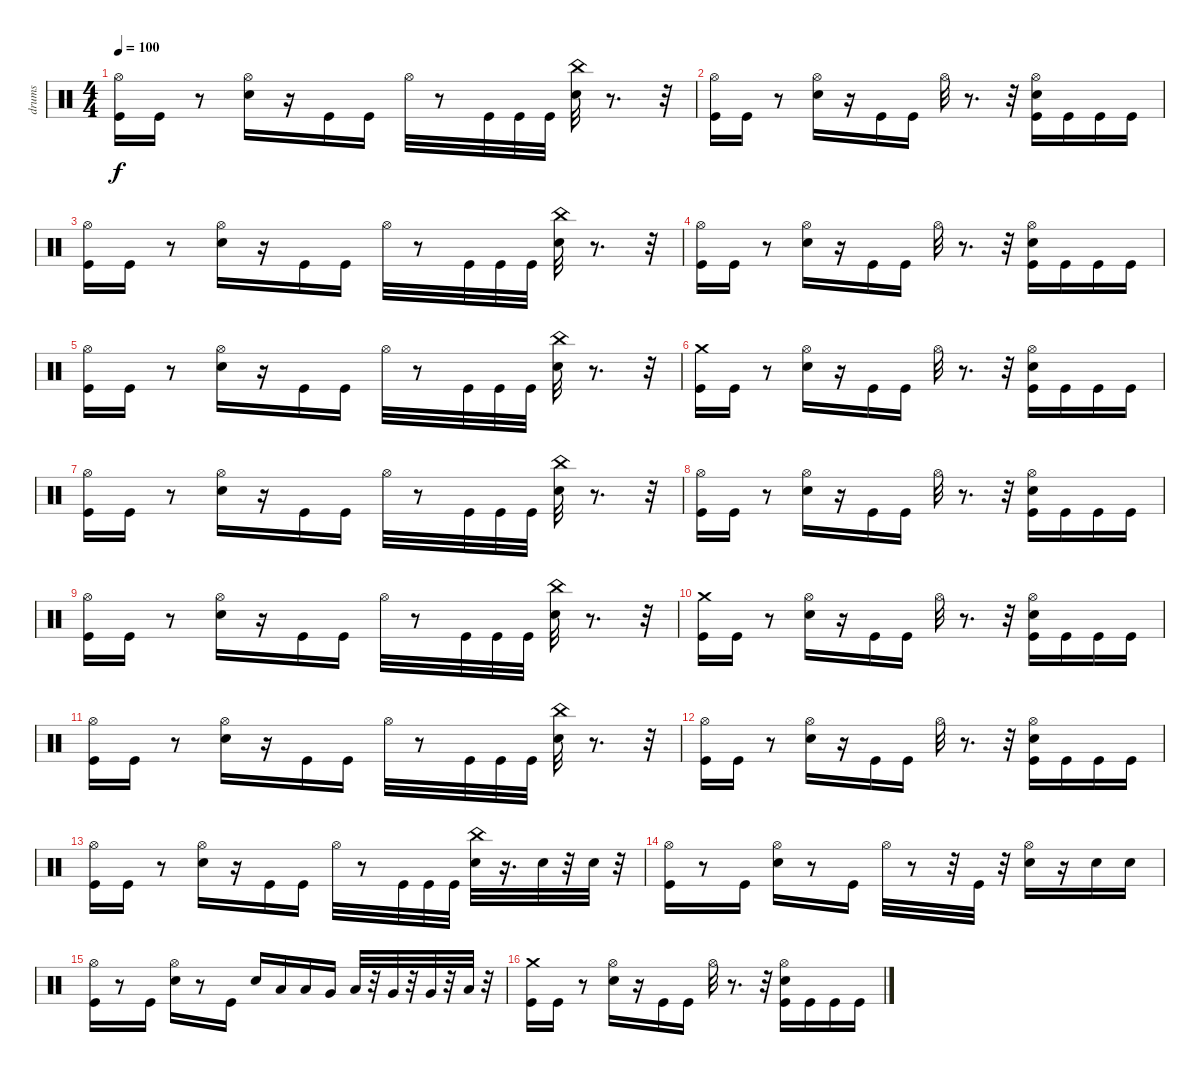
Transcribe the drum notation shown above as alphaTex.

\track ("drums" "drums") {instrument percussion}
\staff {score}
\articulation defaults
\ts (4 4)
\tempo 100
\clef neutral
\ks c
("Hi-Hat (open)" "Kick (hit)").16{dy f} "Kick (hit)".16 r.8 ("Electric Snare (hit)" "Hi-Hat (open)").16 r.16 "Kick (hit)".16 "Kick (hit)".16 "Hi-Hat (open)".32 r.8 "Kick (hit)".32 "Kick (hit)".32 "Kick (hit)".32 ("China (hit)" "Electric Snare (hit)").32 r.8{d} r.32 |
("Kick (hit)" "Hi-Hat (open)").16 "Kick (hit)".16 r.8 ("Hi-Hat (open)" "Electric Snare (hit)").16 r.16 "Kick (hit)".16 "Kick (hit)".16 "Hi-Hat (open)".32 r.8{d} r.32 ("Kick (hit)" "Hi-Hat (open)" "Electric Snare (hit)").16 "Kick (hit)".16 "Kick (hit)".16 "Kick (hit)".16 |
("Kick (hit)" "Hi-Hat (open)").16 "Kick (hit)".16 r.8 ("Hi-Hat (open)" "Electric Snare (hit)").16 r.16 "Kick (hit)".16 "Kick (hit)".16 "Hi-Hat (open)".32 r.8 "Kick (hit)".32 "Kick (hit)".32 "Kick (hit)".32 ("Electric Snare (hit)" "China (hit)").32 r.8{d} r.32 |
("Hi-Hat (open)" "Kick (hit)").16 "Kick (hit)".16 r.8 ("Electric Snare (hit)" "Hi-Hat (open)").16 r.16 "Kick (hit)".16 "Kick (hit)".16 "Hi-Hat (open)".32 r.8{d} r.32 ("Kick (hit)" "Hi-Hat (open)" "Electric Snare (hit)").16 "Kick (hit)".16 "Kick (hit)".16 "Kick (hit)".16 |
("Kick (hit)" "Hi-Hat (open)").16 "Kick (hit)".16 r.8 ("Electric Snare (hit)" "Hi-Hat (open)").16 r.16 "Kick (hit)".16 "Kick (hit)".16 "Hi-Hat (open)".32 r.8 "Kick (hit)".32 "Kick (hit)".32 "Kick (hit)".32 ("China (hit)" "Electric Snare (hit)").32 r.8{d} r.32 |
("Kick (hit)" "Crash medium (hit)").16 "Kick (hit)".16 r.8 ("Electric Snare (hit)" "Hi-Hat (open)").16 r.16 "Kick (hit)".16 "Kick (hit)".16 "Hi-Hat (open)".32 r.8{d} r.32 ("Kick (hit)" "Hi-Hat (open)" "Electric Snare (hit)").16 "Kick (hit)".16 "Kick (hit)".16 "Kick (hit)".16 |
("Kick (hit)" "Hi-Hat (open)").16 "Kick (hit)".16 r.8 ("Electric Snare (hit)" "Hi-Hat (open)").16 r.16 "Kick (hit)".16 "Kick (hit)".16 "Hi-Hat (open)".32 r.8 "Kick (hit)".32 "Kick (hit)".32 "Kick (hit)".32 ("Electric Snare (hit)" "China (hit)").32 r.8{d} r.32 |
("Kick (hit)" "Hi-Hat (open)").16 "Kick (hit)".16 r.8 ("Hi-Hat (open)" "Electric Snare (hit)").16 r.16 "Kick (hit)".16 "Kick (hit)".16 "Hi-Hat (open)".32 r.8{d} r.32 ("Kick (hit)" "Electric Snare (hit)" "Hi-Hat (open)").16 "Kick (hit)".16 "Kick (hit)".16 "Kick (hit)".16 |
("Hi-Hat (open)" "Kick (hit)").16 "Kick (hit)".16 r.8 ("Electric Snare (hit)" "Hi-Hat (open)").16 r.16 "Kick (hit)".16 "Kick (hit)".16 "Hi-Hat (open)".32 r.8 "Kick (hit)".32 "Kick (hit)".32 "Kick (hit)".32 ("China (hit)" "Electric Snare (hit)").32 r.8{d} r.32 |
("Crash medium (hit)" "Kick (hit)").16 "Kick (hit)".16 r.8 ("Electric Snare (hit)" "Hi-Hat (open)").16 r.16 "Kick (hit)".16 "Kick (hit)".16 "Hi-Hat (open)".32 r.8{d} r.32 ("Kick (hit)" "Hi-Hat (open)" "Electric Snare (hit)").16 "Kick (hit)".16 "Kick (hit)".16 "Kick (hit)".16 |
("Kick (hit)" "Hi-Hat (open)").16 "Kick (hit)".16 r.8 ("Electric Snare (hit)" "Hi-Hat (open)").16 r.16 "Kick (hit)".16 "Kick (hit)".16 "Hi-Hat (open)".32 r.8 "Kick (hit)".32 "Kick (hit)".32 "Kick (hit)".32 ("China (hit)" "Electric Snare (hit)").32 r.8{d} r.32 |
("Hi-Hat (open)" "Kick (hit)").16 "Kick (hit)".16 r.8 ("Electric Snare (hit)" "Hi-Hat (open)").16 r.16 "Kick (hit)".16 "Kick (hit)".16 "Hi-Hat (open)".32 r.8{d} r.32 ("Kick (hit)" "Electric Snare (hit)" "Hi-Hat (open)").16 "Kick (hit)".16 "Kick (hit)".16 "Kick (hit)".16 |
("Kick (hit)" "Hi-Hat (open)").16 "Kick (hit)".16 r.8 ("Hi-Hat (open)" "Electric Snare (hit)").16 r.16 "Kick (hit)".16 "Kick (hit)".16 "Hi-Hat (open)".32 r.8 "Kick (hit)".32 "Kick (hit)".32 "Kick (hit)".32 ("Electric Snare (hit)" "China (hit)").32 r.16{d} "Electric Snare (hit)".32 r.32 "Electric Snare (hit)".32 r.32 |
("Kick (hit)" "Hi-Hat (open)").16 r.8 "Kick (hit)".16 ("Hi-Hat (open)" "Electric Snare (hit)").16 r.8 "Kick (hit)".16 "Hi-Hat (open)".32 r.8 r.32 "Kick (hit)".32 r.32 ("Hi-Hat (open)" "Electric Snare (hit)").16 r.16 "Electric Snare (hit)".16 "Electric Snare (hit)".16 |
("Hi-Hat (open)" "Kick (hit)").16 r.8 "Kick (hit)".16 ("Hi-Hat (open)" "Electric Snare (hit)").16 r.8 "Kick (hit)".16 "Electric Snare (hit)".16 "Low Tom (hit)".16 "Low Tom (hit)".16 "Very Low Tom (hit)".16 "Low Tom (hit)".32 r.32 "Very Low Tom (hit)".32 r.32 "Very Low Tom (hit)".32 r.32 "Low Floor Tom (hit)".32 r.32 |
("Kick (hit)" "Crash medium (hit)").16 "Kick (hit)".16 r.8 ("Electric Snare (hit)" "Hi-Hat (open)").16 r.16 "Kick (hit)".16 "Kick (hit)".16 "Hi-Hat (open)".32 r.8{d} r.32 ("Kick (hit)" "Electric Snare (hit)" "Hi-Hat (open)").16 "Kick (hit)".16 "Kick (hit)".16 "Kick (hit)".16
